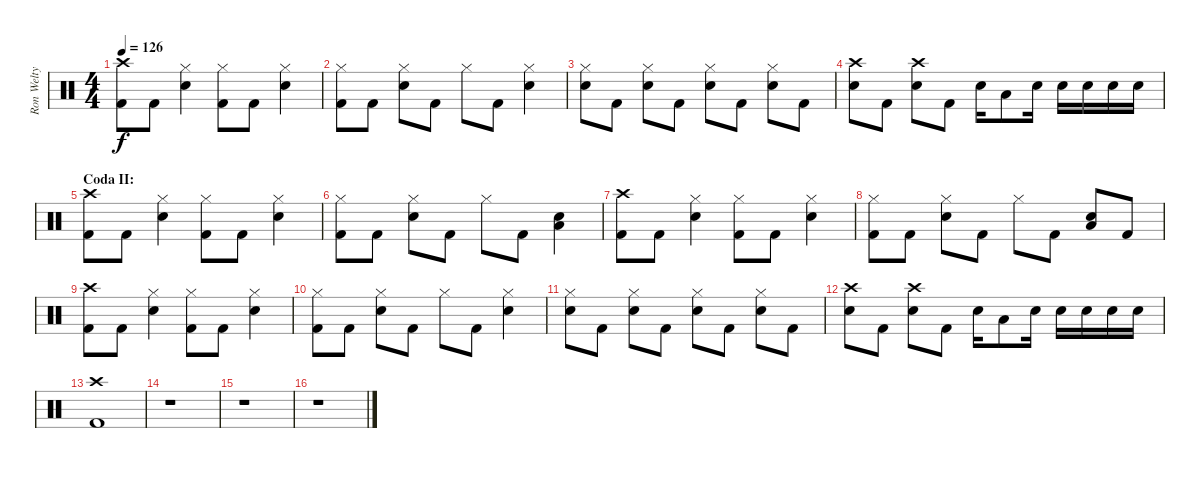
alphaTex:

\track ("Ron Welty - Drums" "Ron Welty ") {instrument percussion}
\staff {score}
\articulation defaults
\ts (4 4)
\tempo 126
\clef neutral
\ks c
("Crash high (hit)" "Kick (hit) 2").8{dy f} "Kick (hit) 2".8 ("Hi-Hat (closed)" "Snare (hit) 2").4 ("Hi-Hat (closed)" "Kick (hit) 2").8 "Kick (hit) 2".8 ("Hi-Hat (closed)" "Snare (hit) 2").4 |
("Hi-Hat (closed)" "Kick (hit) 2").8 "Kick (hit) 2".8 ("Hi-Hat (closed)" "Snare (hit) 2").8 "Kick (hit) 2".8 "Hi-Hat (closed)".8 "Kick (hit) 2".8 ("Hi-Hat (closed)" "Snare (hit) 2").4 |
("Hi-Hat (closed)" "Snare (hit) 2").8 "Kick (hit) 2".8 ("Hi-Hat (closed)" "Snare (hit) 2").8 "Kick (hit) 2".8 ("Hi-Hat (closed)" "Snare (hit) 2").8 "Kick (hit) 2".8 ("Hi-Hat (closed)" "Snare (hit) 2").8 "Kick (hit) 2".8 |
("Crash high (hit)" "Snare (hit) 2").8 "Kick (hit) 2".8 ("Crash high (hit)" "Snare (hit) 2").8 "Kick (hit) 2".8 "Snare (hit) 2".16 "Low Floor Tom (hit)".8 "Snare (hit) 2".16 "Snare (hit) 2".16 "Snare (hit) 2".16 "Snare (hit) 2".16 "Snare (hit) 2".16 |
\section ("" "Coda II:")
("Crash high (hit)" "Kick (hit) 2").8 "Kick (hit) 2".8 ("Hi-Hat (closed)" "Snare (hit) 2").4 ("Hi-Hat (closed)" "Kick (hit) 2").8 "Kick (hit) 2".8 ("Hi-Hat (closed)" "Snare (hit) 2").4 |
("Hi-Hat (closed)" "Kick (hit) 2").8 "Kick (hit) 2".8 ("Hi-Hat (closed)" "Snare (hit) 2").8 "Kick (hit) 2".8 "Hi-Hat (closed)".8 "Kick (hit) 2".8 ("Snare (hit) 2" "Low Floor Tom (hit)").4 |
("Crash high (hit)" "Kick (hit) 2").8 "Kick (hit) 2".8 ("Hi-Hat (closed)" "Snare (hit) 2").4 ("Hi-Hat (closed)" "Kick (hit) 2").8 "Kick (hit) 2".8 ("Hi-Hat (closed)" "Snare (hit) 2").4 |
("Hi-Hat (closed)" "Kick (hit) 2").8 "Kick (hit) 2".8 ("Hi-Hat (closed)" "Snare (hit) 2").8 "Kick (hit) 2".8 "Hi-Hat (closed)".8 "Kick (hit) 2".8 ("Snare (hit) 2" "Low Floor Tom (hit)").8 "Kick (hit) 2".8 |
("Crash high (hit)" "Kick (hit) 2").8 "Kick (hit) 2".8 ("Hi-Hat (closed)" "Snare (hit) 2").4 ("Hi-Hat (closed)" "Kick (hit) 2").8 "Kick (hit) 2".8 ("Hi-Hat (closed)" "Snare (hit) 2").4 |
("Hi-Hat (closed)" "Kick (hit) 2").8 "Kick (hit) 2".8 ("Hi-Hat (closed)" "Snare (hit) 2").8 "Kick (hit) 2".8 "Hi-Hat (closed)".8 "Kick (hit) 2".8 ("Hi-Hat (closed)" "Snare (hit) 2").4 |
("Hi-Hat (closed)" "Snare (hit) 2").8 "Kick (hit) 2".8 ("Hi-Hat (closed)" "Snare (hit) 2").8 "Kick (hit) 2".8 ("Hi-Hat (closed)" "Snare (hit) 2").8 "Kick (hit) 2".8 ("Hi-Hat (closed)" "Snare (hit) 2").8 "Kick (hit) 2".8 |
("Crash high (hit)" "Snare (hit) 2").8 "Kick (hit) 2".8 ("Crash high (hit)" "Snare (hit) 2").8 "Kick (hit) 2".8 "Snare (hit) 2".16 "Low Floor Tom (hit)".8 "Snare (hit) 2".16 "Snare (hit) 2".16 "Snare (hit) 2".16 "Snare (hit) 2".16 "Snare (hit) 2".16 |
("Crash high (hit)" "Kick (hit) 2").1 |
r.1 |
r.1 |
r.1
